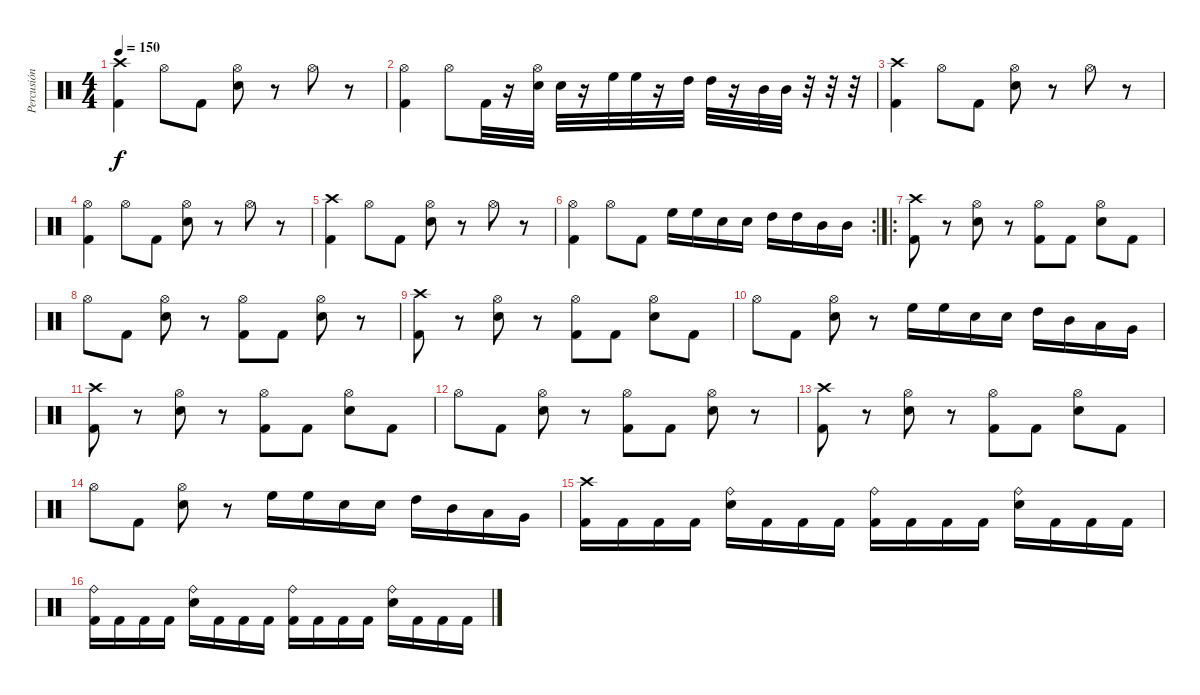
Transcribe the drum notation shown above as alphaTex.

\track ("Percusión" "Percusión") {instrument percussion}
\staff {score}
\articulation defaults
\ts (4 4)
\tempo 150
\clef neutral
\ks c
("Crash high (hit)" "Kick (hit) 2").4{dy f} "Hi-Hat (open)".8 "Kick (hit) 2".8 ("Hi-Hat (open)" "Electric Snare (hit)").8 r.8 "Hi-Hat (open)".8 r.8 |
("Hi-Hat (open)" "Kick (hit) 2").4 "Hi-Hat (open)".8 "Kick (hit) 2".32 r.16 ("Hi-Hat (open)" "Electric Snare (hit)").32 "Electric Snare (hit)".32 r.16 "High Floor Tom (hit)".32 "High Floor Tom (hit)".32 r.16 "High Tom (hit)".32 "High Tom (hit)".32 r.16 "Mid Tom (hit)".32 "Mid Tom (hit)".32 r.32 r.32 r.32 |
("Crash high (hit)" "Kick (hit) 2").4 "Hi-Hat (open)".8 "Kick (hit) 2".8 ("Hi-Hat (open)" "Electric Snare (hit)").8 r.8 "Hi-Hat (open)".8 r.8 |
("Hi-Hat (open)" "Kick (hit) 2").4 "Hi-Hat (open)".8 "Kick (hit) 2".8 ("Hi-Hat (open)" "Electric Snare (hit)").8 r.8 "Hi-Hat (open)".8 r.8 |
("Crash high (hit)" "Kick (hit) 2").4 "Hi-Hat (open)".8 "Kick (hit) 2".8 ("Hi-Hat (open)" "Electric Snare (hit)").8 r.8 "Hi-Hat (open)".8 r.8 |
\rc 2
("Hi-Hat (open)" "Kick (hit) 2").4 "Hi-Hat (open)".8 "Kick (hit) 2".8 "High Floor Tom (hit)".16 "High Floor Tom (hit)".16 "Electric Snare (hit)".16 "Electric Snare (hit)".16 "High Tom (hit)".16 "High Tom (hit)".16 "Mid Tom (hit)".16 "Mid Tom (hit)".16 |
\ro
("Crash high (hit)" "Kick (hit) 2").8 r.8 ("Hi-Hat (open)" "Electric Snare (hit)").8 r.8 ("Hi-Hat (open)" "Kick (hit) 2").8 "Kick (hit) 2".8 ("Hi-Hat (open)" "Electric Snare (hit)").8 "Kick (hit) 2".8 |
"Hi-Hat (open)".8 "Kick (hit) 2".8 ("Hi-Hat (open)" "Electric Snare (hit)").8 r.8 ("Hi-Hat (open)" "Kick (hit) 2").8 "Kick (hit) 2".8 ("Hi-Hat (open)" "Electric Snare (hit)").8 r.8 |
("Crash high (hit)" "Kick (hit) 2").8 r.8 ("Hi-Hat (open)" "Electric Snare (hit)").8 r.8 ("Hi-Hat (open)" "Kick (hit) 2").8 "Kick (hit) 2".8 ("Hi-Hat (open)" "Electric Snare (hit)").8 "Kick (hit) 2".8 |
"Hi-Hat (open)".8 "Kick (hit) 2".8 ("Hi-Hat (open)" "Electric Snare (hit)").8 r.8 "High Floor Tom (hit)".16 "High Floor Tom (hit)".16 "Electric Snare (hit)".16 "Electric Snare (hit)".16 "High Tom (hit)".16 "Mid Tom (hit)".16 "Low Tom (hit)".16 "Very Low Tom (hit)".16 |
("Crash high (hit)" "Kick (hit) 2").8 r.8 ("Hi-Hat (open)" "Electric Snare (hit)").8 r.8 ("Hi-Hat (open)" "Kick (hit) 2").8 "Kick (hit) 2".8 ("Hi-Hat (open)" "Electric Snare (hit)").8 "Kick (hit) 2".8 |
"Hi-Hat (open)".8 "Kick (hit) 2".8 ("Hi-Hat (open)" "Electric Snare (hit)").8 r.8 ("Hi-Hat (open)" "Kick (hit) 2").8 "Kick (hit) 2".8 ("Hi-Hat (open)" "Electric Snare (hit)").8 r.8 |
("Crash high (hit)" "Kick (hit) 2").8 r.8 ("Hi-Hat (open)" "Electric Snare (hit)").8 r.8 ("Hi-Hat (open)" "Kick (hit) 2").8 "Kick (hit) 2".8 ("Hi-Hat (open)" "Electric Snare (hit)").8 "Kick (hit) 2".8 |
"Hi-Hat (open)".8 "Kick (hit) 2".8 ("Hi-Hat (open)" "Electric Snare (hit)").8 r.8 "High Floor Tom (hit)".16 "High Floor Tom (hit)".16 "Electric Snare (hit)".16 "Electric Snare (hit)".16 "High Tom (hit)".16 "Mid Tom (hit)".16 "Low Tom (hit)".16 "Very Low Tom (hit)".16 |
("Crash high (hit)" "Kick (hit) 2").16 "Kick (hit) 2".16 "Kick (hit) 2".16 "Kick (hit) 2".16 ("Ride (bell)" "Electric Snare (hit)").16 "Kick (hit) 2".16 "Kick (hit) 2".16 "Kick (hit) 2".16 ("Ride (bell)" "Kick (hit) 2").16 "Kick (hit) 2".16 "Kick (hit) 2".16 "Kick (hit) 2".16 ("Ride (bell)" "Electric Snare (hit)").16 "Kick (hit) 2".16 "Kick (hit) 2".16 "Kick (hit) 2".16 |
("Ride (bell)" "Kick (hit) 2").16 "Kick (hit) 2".16 "Kick (hit) 2".16 "Kick (hit) 2".16 ("Ride (bell)" "Electric Snare (hit)").16 "Kick (hit) 2".16 "Kick (hit) 2".16 "Kick (hit) 2".16 ("Ride (bell)" "Kick (hit) 2").16 "Kick (hit) 2".16 "Kick (hit) 2".16 "Kick (hit) 2".16 ("Ride (bell)" "Electric Snare (hit)").16 "Kick (hit) 2".16 "Kick (hit) 2".16 "Kick (hit) 2".16
